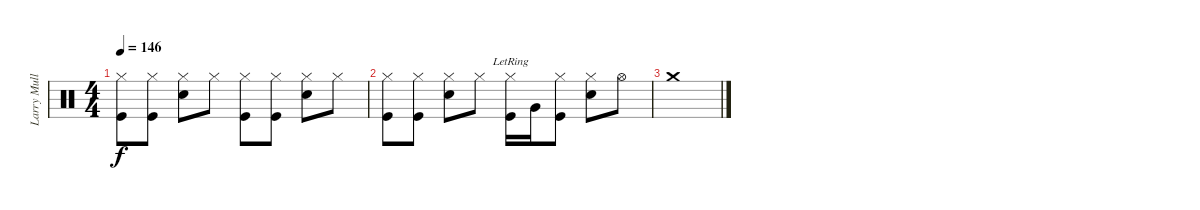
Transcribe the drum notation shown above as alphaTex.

\track ("Larry Mullen" "Larry Mull") {instrument percussion}
\staff {score}
\articulation defaults
\ts (4 4)
\tempo 146
\clef neutral
\ks c
("Hi-Hat (closed)" "Kick (hit)").8{dy f} ("Hi-Hat (closed)" "Kick (hit)").8 ("Hi-Hat (closed)" "Snare (hit) 2").8 "Hi-Hat (closed)".8 ("Hi-Hat (closed)" "Kick (hit)").8 ("Hi-Hat (closed)" "Kick (hit)").8 ("Hi-Hat (closed)" "Snare (hit) 2").8 "Hi-Hat (closed)".8 |
("Hi-Hat (closed)" "Kick (hit)").8 ("Hi-Hat (closed)" "Kick (hit)").8 ("Hi-Hat (closed)" "Snare (hit) 2").8 "Hi-Hat (closed)".8 ("Hi-Hat (closed)" "Kick (hit)"{lr}).16 "Very Low Tom (hit)"{lr}.16 ("Hi-Hat (closed)" "Kick (hit)").8 ("Hi-Hat (closed)" "Snare (hit) 2").8 "Hi-Hat (open)".8 |
"Crash medium (hit)".1
